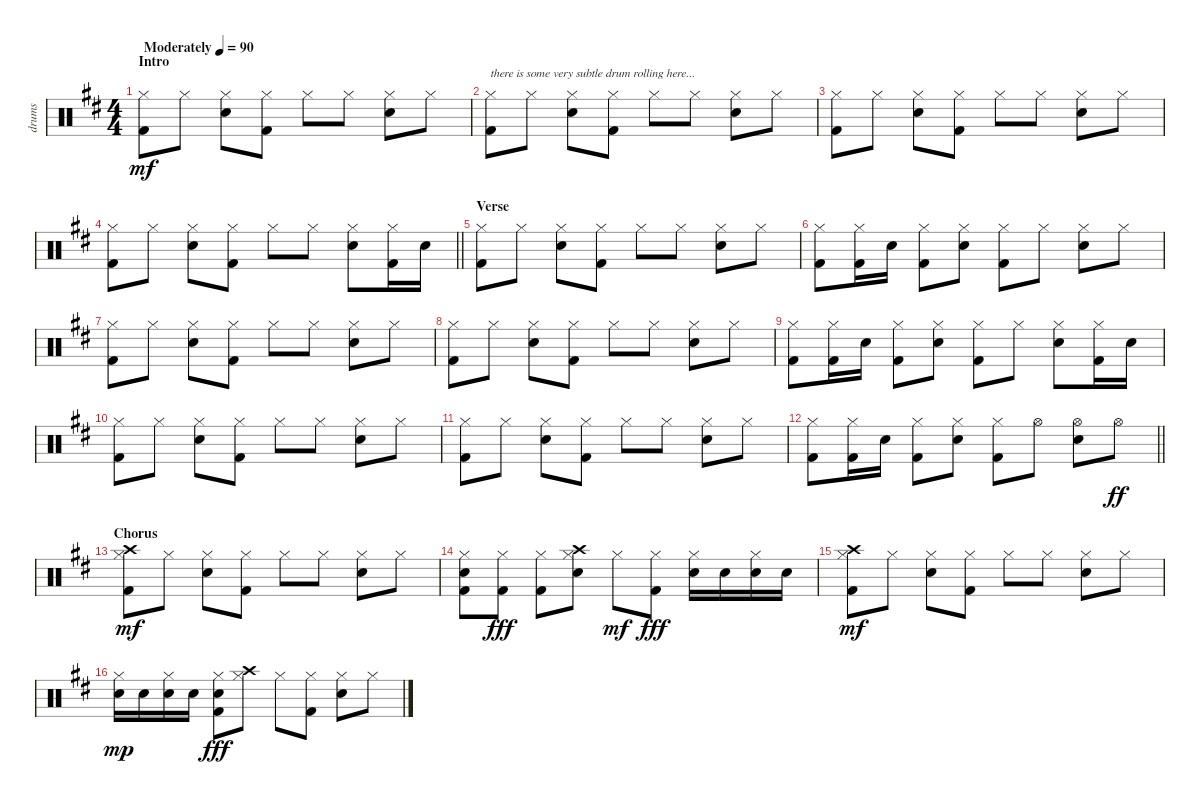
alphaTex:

\track ("drums" "drums") {instrument percussion}
\staff {score}
\articulation defaults
\ts (4 4)
\section ("" "Intro")
\tempo (90 "Moderately")
\clef neutral
\ks d
("Hi-Hat (closed)" "Kick (hit) 2").8{dy mf} "Hi-Hat (closed)".8 ("Hi-Hat (closed)" "Electric Snare (hit)").8 ("Hi-Hat (closed)" "Kick (hit) 2").8 "Hi-Hat (closed)".8 "Hi-Hat (closed)".8 ("Hi-Hat (closed)" "Snare (hit) 2").8 "Hi-Hat (closed)".8 |
("Hi-Hat (closed)" "Kick (hit) 2").8{txt "there is some very subtle drum rolling here..."} "Hi-Hat (closed)".8 ("Hi-Hat (closed)" "Electric Snare (hit)").8 ("Hi-Hat (closed)" "Kick (hit) 2").8 "Hi-Hat (closed)".8 "Hi-Hat (closed)".8 ("Hi-Hat (closed)" "Snare (hit) 2").8 "Hi-Hat (closed)".8 |
("Hi-Hat (closed)" "Kick (hit) 2").8 "Hi-Hat (closed)".8 ("Hi-Hat (closed)" "Electric Snare (hit)").8 ("Hi-Hat (closed)" "Kick (hit) 2").8 "Hi-Hat (closed)".8 "Hi-Hat (closed)".8 ("Hi-Hat (closed)" "Snare (hit) 2").8 "Hi-Hat (closed)".8 |
\barLineRight lightlight
("Hi-Hat (closed)" "Kick (hit) 2").8 "Hi-Hat (closed)".8 ("Hi-Hat (closed)" "Electric Snare (hit)").8 ("Hi-Hat (closed)" "Kick (hit) 2").8 "Hi-Hat (closed)".8 "Hi-Hat (closed)".8 ("Hi-Hat (closed)" "Snare (hit) 2").8 ("Hi-Hat (closed)" "Kick (hit) 2").16 "Snare (hit) 2".16 |
\section ("" "Verse")
("Hi-Hat (closed)" "Kick (hit) 2").8 "Hi-Hat (closed)".8 ("Hi-Hat (closed)" "Electric Snare (hit)").8 ("Hi-Hat (closed)" "Kick (hit) 2").8 "Hi-Hat (closed)".8 "Hi-Hat (closed)".8 ("Hi-Hat (closed)" "Snare (hit) 2").8 "Hi-Hat (closed)".8 |
("Hi-Hat (closed)" "Kick (hit) 2").8 ("Hi-Hat (closed)" "Kick (hit) 2").16 "Electric Snare (hit)".16 ("Hi-Hat (closed)" "Kick (hit) 2").8 ("Hi-Hat (closed)" "Snare (hit) 2").8 ("Hi-Hat (closed)" "Kick (hit) 2").8 "Hi-Hat (closed)".8 ("Hi-Hat (closed)" "Snare (hit) 2").8 "Hi-Hat (closed)".8 |
("Hi-Hat (closed)" "Kick (hit) 2").8 "Hi-Hat (closed)".8 ("Hi-Hat (closed)" "Electric Snare (hit)").8 ("Hi-Hat (closed)" "Kick (hit) 2").8 "Hi-Hat (closed)".8 "Hi-Hat (closed)".8 ("Hi-Hat (closed)" "Snare (hit) 2").8 "Hi-Hat (closed)".8 |
("Hi-Hat (closed)" "Kick (hit) 2").8 "Hi-Hat (closed)".8 ("Hi-Hat (closed)" "Electric Snare (hit)").8 ("Hi-Hat (closed)" "Kick (hit) 2").8 "Hi-Hat (closed)".8 "Hi-Hat (closed)".8 ("Hi-Hat (closed)" "Snare (hit) 2").8 "Hi-Hat (closed)".8 |
("Hi-Hat (closed)" "Kick (hit) 2").8 ("Hi-Hat (closed)" "Kick (hit) 2").16 "Electric Snare (hit)".16 ("Hi-Hat (closed)" "Kick (hit) 2").8 ("Hi-Hat (closed)" "Snare (hit) 2").8 ("Hi-Hat (closed)" "Kick (hit) 2").8 "Hi-Hat (closed)".8 ("Hi-Hat (closed)" "Snare (hit) 2").8 ("Hi-Hat (closed)" "Kick (hit) 2").16 "Snare (hit) 2".16 |
("Hi-Hat (closed)" "Kick (hit) 2").8 "Hi-Hat (closed)".8 ("Hi-Hat (closed)" "Electric Snare (hit)").8 ("Hi-Hat (closed)" "Kick (hit) 2").8 "Hi-Hat (closed)".8 "Hi-Hat (closed)".8 ("Hi-Hat (closed)" "Snare (hit) 2").8 "Hi-Hat (closed)".8 |
("Hi-Hat (closed)" "Kick (hit) 2").8 "Hi-Hat (closed)".8 ("Hi-Hat (closed)" "Electric Snare (hit)").8 ("Hi-Hat (closed)" "Kick (hit) 2").8 "Hi-Hat (closed)".8 "Hi-Hat (closed)".8 ("Hi-Hat (closed)" "Snare (hit) 2").8 "Hi-Hat (closed)".8 |
\barLineRight lightlight
("Hi-Hat (closed)" "Kick (hit) 2").8 ("Hi-Hat (closed)" "Kick (hit) 2").16 "Electric Snare (hit)".16 ("Hi-Hat (closed)" "Kick (hit) 2").8 ("Hi-Hat (closed)" "Snare (hit) 2").8 ("Hi-Hat (closed)" "Kick (hit) 2").8 "Hi-Hat (open)".8 ("Hi-Hat (open)" "Snare (hit) 2").8 "Hi-Hat (open)".8{dy ff} |
\section ("" "Chorus")
("Hi-Hat (closed)" "Crash high (hit)" "Kick (hit) 2").8{dy mf} "Hi-Hat (closed)".8 ("Hi-Hat (closed)" "Electric Snare (hit)").8 ("Hi-Hat (closed)" "Kick (hit) 2").8 "Hi-Hat (closed)".8 "Hi-Hat (closed)".8 ("Hi-Hat (closed)" "Snare (hit) 2").8 "Hi-Hat (closed)".8 |
("Hi-Hat (closed)" "Electric Snare (hit)" "Kick (hit) 2").8 ("Hi-Hat (closed)" "Kick (hit) 2").8{dy fff} ("Hi-Hat (closed)" "Kick (hit) 2").8 ("Hi-Hat (closed)" "Crash high (hit)" "Electric Snare (hit)").8 "Hi-Hat (closed)".8{dy mf} ("Hi-Hat (closed)" "Kick (hit) 2").8{dy fff} ("Hi-Hat (closed)" "Snare (hit) 2").16 "Electric Snare (hit)".16 ("Hi-Hat (closed)" "Snare (hit) 2").16 "Electric Snare (hit)".16 |
("Hi-Hat (closed)" "Crash high (hit)" "Kick (hit) 2").8{dy mf} "Hi-Hat (closed)".8 ("Hi-Hat (closed)" "Electric Snare (hit)").8 ("Hi-Hat (closed)" "Kick (hit) 2").8 "Hi-Hat (closed)".8 "Hi-Hat (closed)".8 ("Hi-Hat (closed)" "Snare (hit) 2").8 "Hi-Hat (closed)".8 |
("Hi-Hat (closed)" "Snare (hit) 2").16{dy mp} "Electric Snare (hit)".16 ("Hi-Hat (closed)" "Snare (hit) 2").16 "Electric Snare (hit)".16 ("Hi-Hat (closed)" "Snare (hit) 2" "Kick (hit) 2").8{dy fff} ("Hi-Hat (closed)" "Crash high (hit)").8 "Hi-Hat (closed)".8 ("Hi-Hat (closed)" "Kick (hit) 2").8 ("Hi-Hat (closed)" "Electric Snare (hit)").8 "Hi-Hat (closed)".8
